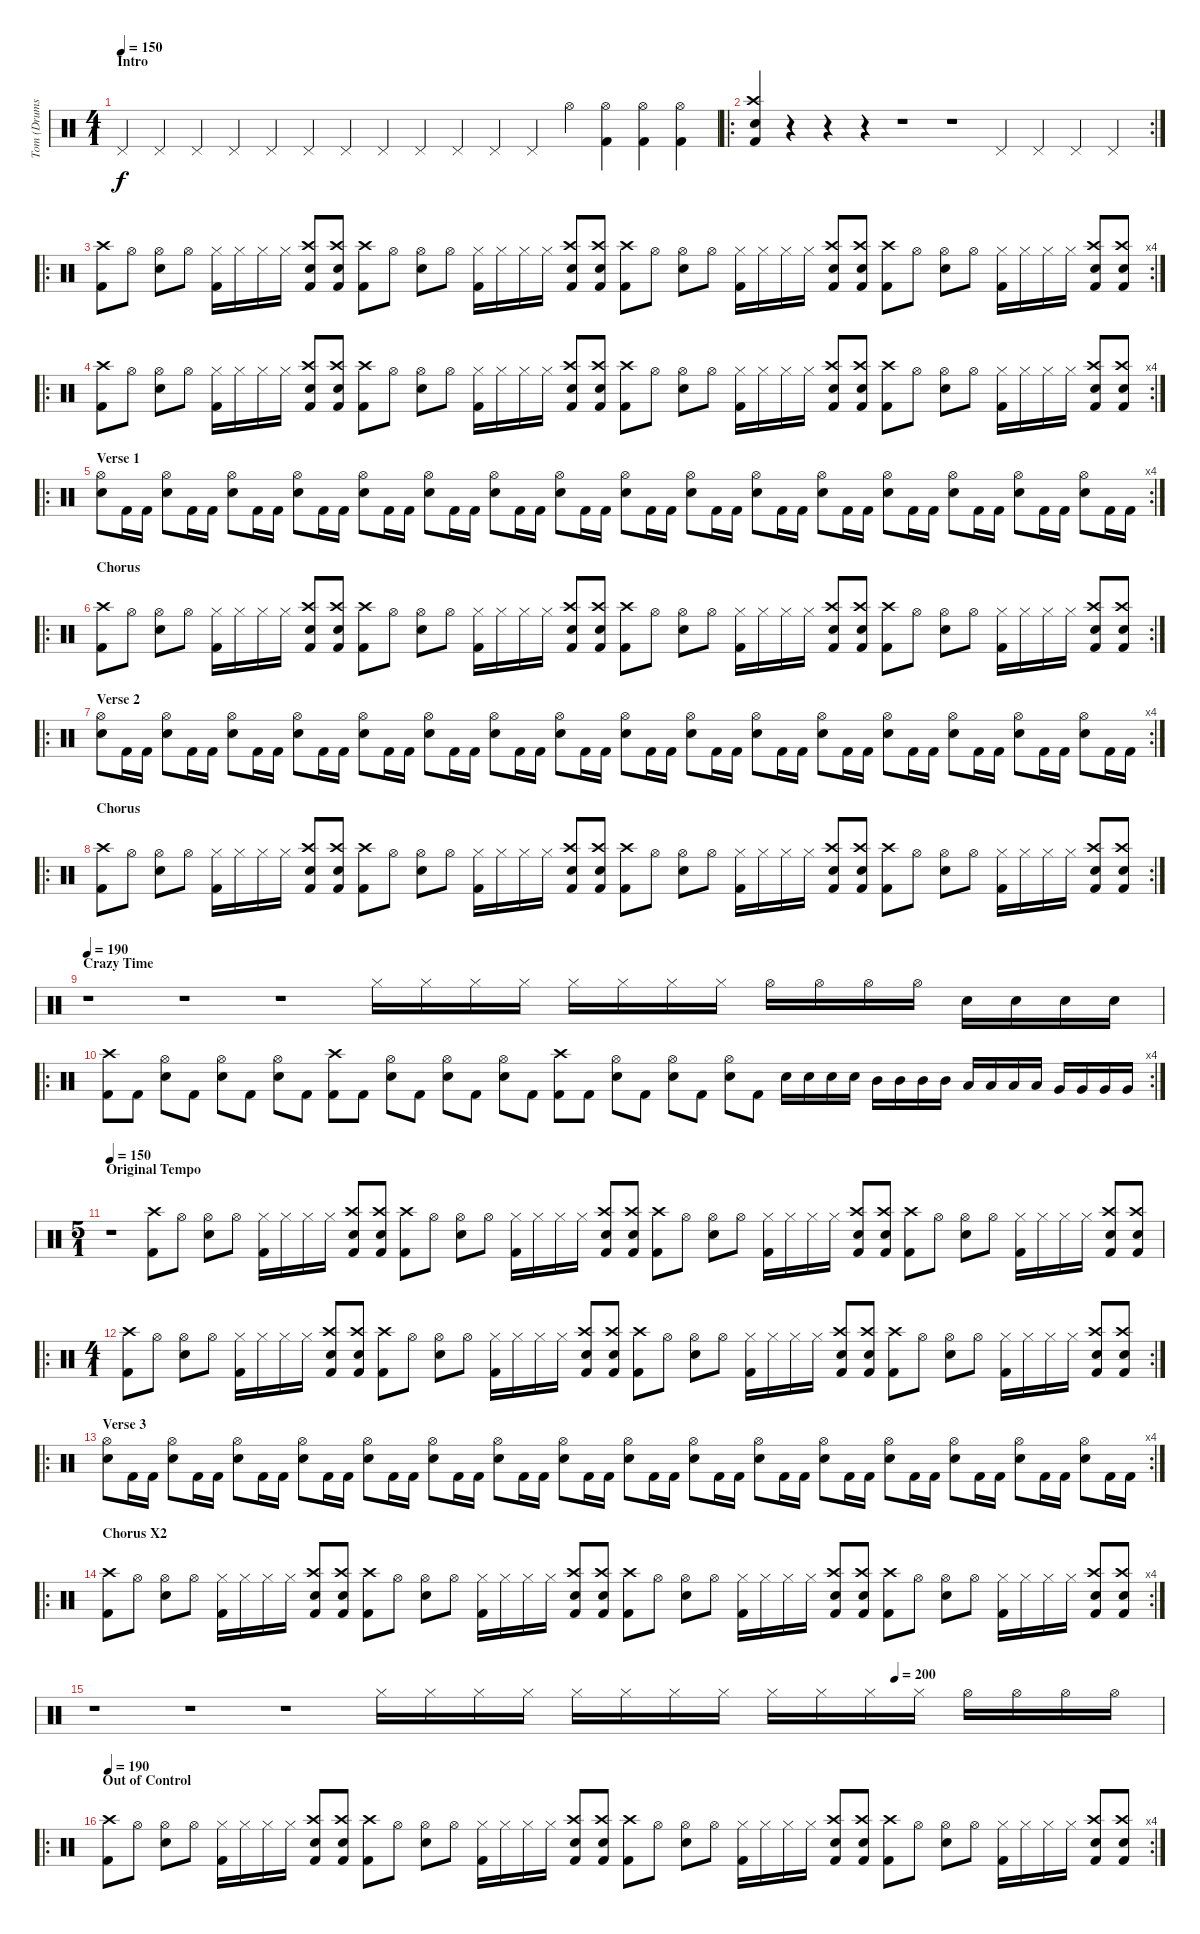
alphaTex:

\track ("Tom (Drums)" "Tom (Drums") {instrument percussion}
\staff {score}
\articulation defaults
\ts (4 1)
\section ("" "Intro")
\tempo 150
\clef neutral
\ks c "Pedal Hi-Hat (hit)".4{dy f} "Pedal Hi-Hat (hit)".4 "Pedal Hi-Hat (hit)".4 "Pedal Hi-Hat (hit)".4 "Pedal Hi-Hat (hit)".4 "Pedal Hi-Hat (hit)".4 "Pedal Hi-Hat (hit)".4 "Pedal Hi-Hat (hit)".4 "Pedal Hi-Hat (hit)".4 "Pedal Hi-Hat (hit)".4 "Pedal Hi-Hat (hit)".4 "Pedal Hi-Hat (hit)".4 "Hi-Hat (open)".4
("Hi-Hat (open)" "Kick (hit) 2").4 ("Hi-Hat (open)" "Kick (hit) 2").4 ("Hi-Hat (open)" "Kick (hit) 2").4 |
\ro
\rc 2
("Crash high (hit)" "Electric Snare (hit)" "Kick (hit) 2").4 r.4 r.4 r.4 r.1 r.1 "Pedal Hi-Hat (hit)".4 "Pedal Hi-Hat (hit)".4 "Pedal Hi-Hat (hit)".4 "Pedal Hi-Hat (hit)".4 |
\ro
\rc 4
("Crash high (hit)" "Kick (hit) 2").8 "Hi-Hat (open)".8 ("Hi-Hat (open)" "Electric Snare (hit)").8 "Hi-Hat (open)".8 ("Hi-Hat (closed)" "Kick (hit) 2").16 "Hi-Hat (closed)".16 "Hi-Hat (closed)".16 "Hi-Hat (closed)".16 ("Crash high (hit)" "Electric Snare (hit)" "Kick (hit) 2").8 ("Crash high (hit)" "Electric Snare (hit)" "Kick (hit) 2").8 ("Crash high (hit)" "Kick (hit) 2").8 "Hi-Hat (open)".8 ("Hi-Hat (open)" "Electric Snare (hit)").8 "Hi-Hat (open)".8 ("Hi-Hat (closed)" "Kick (hit) 2").16 "Hi-Hat (closed)".16 "Hi-Hat (closed)".16 "Hi-Hat (closed)".16 ("Crash high (hit)" "Electric Snare (hit)" "Kick (hit) 2").8 ("Crash high (hit)" "Electric Snare (hit)" "Kick (hit) 2").8 ("Crash high (hit)" "Kick (hit) 2").8 "Hi-Hat (open)".8 ("Hi-Hat (open)" "Electric Snare (hit)").8 "Hi-Hat (open)".8 ("Hi-Hat (closed)" "Kick (hit) 2").16 "Hi-Hat (closed)".16 "Hi-Hat (closed)".16 "Hi-Hat (closed)".16 ("Crash high (hit)" "Kick (hit) 2" "Electric Snare (hit)").8 ("Crash high (hit)" "Kick (hit) 2" "Electric Snare (hit)").8 ("Crash high (hit)" "Kick (hit) 2").8 "Hi-Hat (open)".8 ("Hi-Hat (open)" "Electric Snare (hit)").8 "Hi-Hat (open)".8 ("Hi-Hat (closed)" "Kick (hit) 2").16 "Hi-Hat (closed)".16 "Hi-Hat (closed)".16 "Hi-Hat (closed)".16 ("Crash high (hit)" "Electric Snare (hit)" "Kick (hit) 2").8 ("Crash high (hit)" "Electric Snare (hit)" "Kick (hit) 2").8 |
\ro
\rc 4
("Crash high (hit)" "Kick (hit) 2").8 "Hi-Hat (open)".8 ("Hi-Hat (open)" "Electric Snare (hit)").8 "Hi-Hat (open)".8 ("Hi-Hat (closed)" "Kick (hit) 2").16 "Hi-Hat (closed)".16 "Hi-Hat (closed)".16 "Hi-Hat (closed)".16 ("Crash high (hit)" "Electric Snare (hit)" "Kick (hit) 2").8 ("Crash high (hit)" "Electric Snare (hit)" "Kick (hit) 2").8 ("Crash high (hit)" "Kick (hit) 2").8 "Hi-Hat (open)".8 ("Hi-Hat (open)" "Electric Snare (hit)").8 "Hi-Hat (open)".8 ("Hi-Hat (closed)" "Kick (hit) 2").16 "Hi-Hat (closed)".16 "Hi-Hat (closed)".16 "Hi-Hat (closed)".16 ("Crash high (hit)" "Electric Snare (hit)" "Kick (hit) 2").8 ("Crash high (hit)" "Electric Snare (hit)" "Kick (hit) 2").8 ("Crash high (hit)" "Kick (hit) 2").8 "Hi-Hat (open)".8 ("Hi-Hat (open)" "Electric Snare (hit)").8 "Hi-Hat (open)".8 ("Hi-Hat (closed)" "Kick (hit) 2").16 "Hi-Hat (closed)".16 "Hi-Hat (closed)".16 "Hi-Hat (closed)".16 ("Crash high (hit)" "Kick (hit) 2" "Electric Snare (hit)").8 ("Crash high (hit)" "Kick (hit) 2" "Electric Snare (hit)").8 ("Crash high (hit)" "Kick (hit) 2").8 "Hi-Hat (open)".8 ("Hi-Hat (open)" "Electric Snare (hit)").8 "Hi-Hat (open)".8 ("Hi-Hat (closed)" "Kick (hit) 2").16 "Hi-Hat (closed)".16 "Hi-Hat (closed)".16 "Hi-Hat (closed)".16 ("Crash high (hit)" "Electric Snare (hit)" "Kick (hit) 2").8 ("Crash high (hit)" "Electric Snare (hit)" "Kick (hit) 2").8 |
\ro
\rc 4
\section ("" "Verse 1")
("Hi-Hat (open)" "Electric Snare (hit)").8 "Kick (hit) 2".16 "Kick (hit) 2".16 ("Hi-Hat (open)" "Electric Snare (hit)").8 "Kick (hit) 2".16 "Kick (hit) 2".16 ("Hi-Hat (open)" "Electric Snare (hit)").8 "Kick (hit) 2".16 "Kick (hit) 2".16 ("Hi-Hat (open)" "Electric Snare (hit)").8 "Kick (hit) 2".16 "Kick (hit) 2".16 ("Hi-Hat (open)" "Electric Snare (hit)").8 "Kick (hit) 2".16 "Kick (hit) 2".16 ("Hi-Hat (open)" "Electric Snare (hit)").8 "Kick (hit) 2".16 "Kick (hit) 2".16 ("Hi-Hat (open)" "Electric Snare (hit)").8 "Kick (hit) 2".16 "Kick (hit) 2".16 ("Hi-Hat (open)" "Electric Snare (hit)").8 "Kick (hit) 2".16 "Kick (hit) 2".16 ("Hi-Hat (open)" "Electric Snare (hit)").8 "Kick (hit) 2".16 "Kick (hit) 2".16 ("Hi-Hat (open)" "Electric Snare (hit)").8 "Kick (hit) 2".16 "Kick (hit) 2".16 ("Hi-Hat (open)" "Electric Snare (hit)").8 "Kick (hit) 2".16 "Kick (hit) 2".16 ("Hi-Hat (open)" "Electric Snare (hit)").8 "Kick (hit) 2".16 "Kick (hit) 2".16 ("Hi-Hat (open)" "Electric Snare (hit)").8 "Kick (hit) 2".16 "Kick (hit) 2".16 ("Hi-Hat (open)" "Electric Snare (hit)").8 "Kick (hit) 2".16 "Kick (hit) 2".16 ("Hi-Hat (open)" "Electric Snare (hit)").8 "Kick (hit) 2".16 "Kick (hit) 2".16 ("Hi-Hat (open)" "Electric Snare (hit)").8 "Kick (hit) 2".16 "Kick (hit) 2".16 |
\ro
\rc 2
\section ("" "Chorus")
("Crash high (hit)" "Kick (hit) 2").8 "Hi-Hat (open)".8 ("Hi-Hat (open)" "Electric Snare (hit)").8 "Hi-Hat (open)".8 ("Hi-Hat (closed)" "Kick (hit) 2").16 "Hi-Hat (closed)".16 "Hi-Hat (closed)".16 "Hi-Hat (closed)".16 ("Crash high (hit)" "Electric Snare (hit)" "Kick (hit) 2").8 ("Crash high (hit)" "Electric Snare (hit)" "Kick (hit) 2").8 ("Crash high (hit)" "Kick (hit) 2").8 "Hi-Hat (open)".8 ("Hi-Hat (open)" "Electric Snare (hit)").8 "Hi-Hat (open)".8 ("Hi-Hat (closed)" "Kick (hit) 2").16 "Hi-Hat (closed)".16 "Hi-Hat (closed)".16 "Hi-Hat (closed)".16 ("Crash high (hit)" "Electric Snare (hit)" "Kick (hit) 2").8 ("Crash high (hit)" "Electric Snare (hit)" "Kick (hit) 2").8 ("Crash high (hit)" "Kick (hit) 2").8 "Hi-Hat (open)".8 ("Hi-Hat (open)" "Electric Snare (hit)").8 "Hi-Hat (open)".8 ("Hi-Hat (closed)" "Kick (hit) 2").16 "Hi-Hat (closed)".16 "Hi-Hat (closed)".16 "Hi-Hat (closed)".16 ("Crash high (hit)" "Kick (hit) 2" "Electric Snare (hit)").8 ("Crash high (hit)" "Kick (hit) 2" "Electric Snare (hit)").8 ("Crash high (hit)" "Kick (hit) 2").8 "Hi-Hat (open)".8 ("Hi-Hat (open)" "Electric Snare (hit)").8 "Hi-Hat (open)".8 ("Hi-Hat (closed)" "Kick (hit) 2").16 "Hi-Hat (closed)".16 "Hi-Hat (closed)".16 "Hi-Hat (closed)".16 ("Crash high (hit)" "Electric Snare (hit)" "Kick (hit) 2").8 ("Crash high (hit)" "Electric Snare (hit)" "Kick (hit) 2").8 |
\ro
\rc 4
\section ("" "Verse 2")
("Hi-Hat (open)" "Electric Snare (hit)").8 "Kick (hit) 2".16 "Kick (hit) 2".16 ("Hi-Hat (open)" "Electric Snare (hit)").8 "Kick (hit) 2".16 "Kick (hit) 2".16 ("Hi-Hat (open)" "Electric Snare (hit)").8 "Kick (hit) 2".16 "Kick (hit) 2".16 ("Hi-Hat (open)" "Electric Snare (hit)").8 "Kick (hit) 2".16 "Kick (hit) 2".16 ("Hi-Hat (open)" "Electric Snare (hit)").8 "Kick (hit) 2".16 "Kick (hit) 2".16 ("Hi-Hat (open)" "Electric Snare (hit)").8 "Kick (hit) 2".16 "Kick (hit) 2".16 ("Hi-Hat (open)" "Electric Snare (hit)").8 "Kick (hit) 2".16 "Kick (hit) 2".16 ("Hi-Hat (open)" "Electric Snare (hit)").8 "Kick (hit) 2".16 "Kick (hit) 2".16 ("Hi-Hat (open)" "Electric Snare (hit)").8 "Kick (hit) 2".16 "Kick (hit) 2".16 ("Hi-Hat (open)" "Electric Snare (hit)").8 "Kick (hit) 2".16 "Kick (hit) 2".16 ("Hi-Hat (open)" "Electric Snare (hit)").8 "Kick (hit) 2".16 "Kick (hit) 2".16 ("Hi-Hat (open)" "Electric Snare (hit)").8 "Kick (hit) 2".16 "Kick (hit) 2".16 ("Hi-Hat (open)" "Electric Snare (hit)").8 "Kick (hit) 2".16 "Kick (hit) 2".16 ("Hi-Hat (open)" "Electric Snare (hit)").8 "Kick (hit) 2".16 "Kick (hit) 2".16 ("Hi-Hat (open)" "Electric Snare (hit)").8 "Kick (hit) 2".16 "Kick (hit) 2".16 ("Hi-Hat (open)" "Electric Snare (hit)").8 "Kick (hit) 2".16 "Kick (hit) 2".16 |
\ro
\rc 2
\section ("" "Chorus")
("Crash high (hit)" "Kick (hit) 2").8 "Hi-Hat (open)".8 ("Hi-Hat (open)" "Electric Snare (hit)").8 "Hi-Hat (open)".8 ("Hi-Hat (closed)" "Kick (hit) 2").16 "Hi-Hat (closed)".16 "Hi-Hat (closed)".16 "Hi-Hat (closed)".16 ("Crash high (hit)" "Electric Snare (hit)" "Kick (hit) 2").8 ("Crash high (hit)" "Electric Snare (hit)" "Kick (hit) 2").8 ("Crash high (hit)" "Kick (hit) 2").8 "Hi-Hat (open)".8 ("Hi-Hat (open)" "Electric Snare (hit)").8 "Hi-Hat (open)".8 ("Hi-Hat (closed)" "Kick (hit) 2").16 "Hi-Hat (closed)".16 "Hi-Hat (closed)".16 "Hi-Hat (closed)".16 ("Crash high (hit)" "Electric Snare (hit)" "Kick (hit) 2").8 ("Crash high (hit)" "Electric Snare (hit)" "Kick (hit) 2").8 ("Crash high (hit)" "Kick (hit) 2").8 "Hi-Hat (open)".8 ("Hi-Hat (open)" "Electric Snare (hit)").8 "Hi-Hat (open)".8 ("Hi-Hat (closed)" "Kick (hit) 2").16 "Hi-Hat (closed)".16 "Hi-Hat (closed)".16 "Hi-Hat (closed)".16 ("Crash high (hit)" "Kick (hit) 2" "Electric Snare (hit)").8 ("Crash high (hit)" "Kick (hit) 2" "Electric Snare (hit)").8 ("Crash high (hit)" "Kick (hit) 2").8 "Hi-Hat (open)".8 ("Hi-Hat (open)" "Electric Snare (hit)").8 "Hi-Hat (open)".8 ("Hi-Hat (closed)" "Kick (hit) 2").16 "Hi-Hat (closed)".16 "Hi-Hat (closed)".16 "Hi-Hat (closed)".16 ("Crash high (hit)" "Electric Snare (hit)" "Kick (hit) 2").8 ("Crash high (hit)" "Electric Snare (hit)" "Kick (hit) 2").8 |
\section ("" "Crazy Time")
\tempo 190
r.1 r.1 r.1 "Hi-Hat (closed)".16 "Hi-Hat (closed)".16 "Hi-Hat (closed)".16 "Hi-Hat (closed)".16 "Hi-Hat (closed)".16 "Hi-Hat (closed)".16 "Hi-Hat (closed)".16 "Hi-Hat (closed)".16 "Hi-Hat (open)".16 "Hi-Hat (open)".16 "Hi-Hat (open)".16 "Hi-Hat (open)".16 "Electric Snare (hit)".16 "Electric Snare (hit)".16 "Electric Snare (hit)".16 "Electric Snare (hit)".16 |
\ro
\rc 4
("Crash high (hit)" "Kick (hit) 2").8 "Kick (hit) 2".8 ("Hi-Hat (open)" "Electric Snare (hit)").8 "Kick (hit) 2".8 ("Hi-Hat (open)" "Electric Snare (hit)").8 "Kick (hit) 2".8 ("Hi-Hat (open)" "Electric Snare (hit)").8 "Kick (hit) 2".8 ("Crash high (hit)" "Kick (hit) 2").8 "Kick (hit) 2".8 ("Hi-Hat (open)" "Electric Snare (hit)").8 "Kick (hit) 2".8 ("Hi-Hat (open)" "Electric Snare (hit)").8 "Kick (hit) 2".8 ("Hi-Hat (open)" "Electric Snare (hit)").8 "Kick (hit) 2".8 ("Crash high (hit)" "Kick (hit) 2").8 "Kick (hit) 2".8 ("Hi-Hat (open)" "Electric Snare (hit)").8 "Kick (hit) 2".8 ("Hi-Hat (open)" "Electric Snare (hit)").8 "Kick (hit) 2".8 ("Hi-Hat (open)" "Electric Snare (hit)").8 "Kick (hit) 2".8 "Electric Snare (hit)".16 "Electric Snare (hit)".16 "Electric Snare (hit)".16 "Electric Snare (hit)".16 "Mid Tom (hit)".16 "Mid Tom (hit)".16 "Mid Tom (hit)".16 "Mid Tom (hit)".16 "Low Tom (hit)".16 "Low Tom (hit)".16 "Low Tom (hit)".16 "Low Tom (hit)".16 "Very Low Tom (hit)".16 "Very Low Tom (hit)".16 "Very Low Tom (hit)".16 "Very Low Tom (hit)".16 |
\ts (5 1)
\section ("" "Original Tempo")
\tempo 150
r.1 ("Crash high (hit)" "Kick (hit) 2").8 "Hi-Hat (open)".8 ("Hi-Hat (open)" "Electric Snare (hit)").8 "Hi-Hat (open)".8 ("Hi-Hat (closed)" "Kick (hit) 2").16 "Hi-Hat (closed)".16 "Hi-Hat (closed)".16 "Hi-Hat (closed)".16 ("Crash high (hit)" "Kick (hit) 2" "Electric Snare (hit)").8 ("Crash high (hit)" "Kick (hit) 2" "Electric Snare (hit)").8 ("Crash high (hit)" "Kick (hit) 2").8 "Hi-Hat (open)".8 ("Hi-Hat (open)" "Electric Snare (hit)").8 "Hi-Hat (open)".8 ("Hi-Hat (closed)" "Kick (hit) 2").16 "Hi-Hat (closed)".16 "Hi-Hat (closed)".16 "Hi-Hat (closed)".16 ("Crash high (hit)" "Kick (hit) 2" "Electric Snare (hit)").8 ("Crash high (hit)" "Kick (hit) 2" "Electric Snare (hit)").8 ("Crash high (hit)" "Kick (hit) 2").8 "Hi-Hat (open)".8 ("Hi-Hat (open)" "Electric Snare (hit)").8 "Hi-Hat (open)".8 ("Hi-Hat (closed)" "Kick (hit) 2").16 "Hi-Hat (closed)".16 "Hi-Hat (closed)".16 "Hi-Hat (closed)".16 ("Crash high (hit)" "Kick (hit) 2" "Electric Snare (hit)").8 ("Crash high (hit)" "Kick (hit) 2" "Electric Snare (hit)").8 ("Crash high (hit)" "Kick (hit) 2").8 "Hi-Hat (open)".8 ("Hi-Hat (open)" "Electric Snare (hit)").8 "Hi-Hat (open)".8 ("Hi-Hat (closed)" "Kick (hit) 2").16 "Hi-Hat (closed)".16 "Hi-Hat (closed)".16 "Hi-Hat (closed)".16 ("Crash high (hit)" "Kick (hit) 2" "Electric Snare (hit)").8 ("Crash high (hit)" "Kick (hit) 2" "Electric Snare (hit)").8 |
\ro
\rc 2
\ts (4 1)
("Crash high (hit)" "Kick (hit) 2").8 "Hi-Hat (open)".8 ("Hi-Hat (open)" "Electric Snare (hit)").8 "Hi-Hat (open)".8 ("Hi-Hat (closed)" "Kick (hit) 2").16 "Hi-Hat (closed)".16 "Hi-Hat (closed)".16 "Hi-Hat (closed)".16 ("Crash high (hit)" "Electric Snare (hit)" "Kick (hit) 2").8 ("Crash high (hit)" "Electric Snare (hit)" "Kick (hit) 2").8 ("Crash high (hit)" "Kick (hit) 2").8 "Hi-Hat (open)".8 ("Hi-Hat (open)" "Electric Snare (hit)").8 "Hi-Hat (open)".8 ("Hi-Hat (closed)" "Kick (hit) 2").16 "Hi-Hat (closed)".16 "Hi-Hat (closed)".16 "Hi-Hat (closed)".16 ("Crash high (hit)" "Electric Snare (hit)" "Kick (hit) 2").8 ("Crash high (hit)" "Electric Snare (hit)" "Kick (hit) 2").8 ("Crash high (hit)" "Kick (hit) 2").8 "Hi-Hat (open)".8 ("Hi-Hat (open)" "Electric Snare (hit)").8 "Hi-Hat (open)".8 ("Hi-Hat (closed)" "Kick (hit) 2").16 "Hi-Hat (closed)".16 "Hi-Hat (closed)".16 "Hi-Hat (closed)".16 ("Crash high (hit)" "Kick (hit) 2" "Electric Snare (hit)").8 ("Crash high (hit)" "Kick (hit) 2" "Electric Snare (hit)").8 ("Crash high (hit)" "Kick (hit) 2").8 "Hi-Hat (open)".8 ("Hi-Hat (open)" "Electric Snare (hit)").8 "Hi-Hat (open)".8 ("Hi-Hat (closed)" "Kick (hit) 2").16 "Hi-Hat (closed)".16 "Hi-Hat (closed)".16 "Hi-Hat (closed)".16 ("Crash high (hit)" "Electric Snare (hit)" "Kick (hit) 2").8 ("Crash high (hit)" "Electric Snare (hit)" "Kick (hit) 2").8 |
\ro
\rc 4
\section ("" "Verse 3")
("Hi-Hat (open)" "Electric Snare (hit)").8 "Kick (hit) 2".16 "Kick (hit) 2".16 ("Hi-Hat (open)" "Electric Snare (hit)").8 "Kick (hit) 2".16 "Kick (hit) 2".16 ("Hi-Hat (open)" "Electric Snare (hit)").8 "Kick (hit) 2".16 "Kick (hit) 2".16 ("Hi-Hat (open)" "Electric Snare (hit)").8 "Kick (hit) 2".16 "Kick (hit) 2".16 ("Hi-Hat (open)" "Electric Snare (hit)").8 "Kick (hit) 2".16 "Kick (hit) 2".16 ("Hi-Hat (open)" "Electric Snare (hit)").8 "Kick (hit) 2".16 "Kick (hit) 2".16 ("Hi-Hat (open)" "Electric Snare (hit)").8 "Kick (hit) 2".16 "Kick (hit) 2".16 ("Hi-Hat (open)" "Electric Snare (hit)").8 "Kick (hit) 2".16 "Kick (hit) 2".16 ("Hi-Hat (open)" "Electric Snare (hit)").8 "Kick (hit) 2".16 "Kick (hit) 2".16 ("Hi-Hat (open)" "Electric Snare (hit)").8 "Kick (hit) 2".16 "Kick (hit) 2".16 ("Hi-Hat (open)" "Electric Snare (hit)").8 "Kick (hit) 2".16 "Kick (hit) 2".16 ("Hi-Hat (open)" "Electric Snare (hit)").8 "Kick (hit) 2".16 "Kick (hit) 2".16 ("Hi-Hat (open)" "Electric Snare (hit)").8 "Kick (hit) 2".16 "Kick (hit) 2".16 ("Hi-Hat (open)" "Electric Snare (hit)").8 "Kick (hit) 2".16 "Kick (hit) 2".16 ("Hi-Hat (open)" "Electric Snare (hit)").8 "Kick (hit) 2".16 "Kick (hit) 2".16 ("Hi-Hat (open)" "Electric Snare (hit)").8 "Kick (hit) 2".16 "Kick (hit) 2".16 |
\ro
\rc 4
\section ("" "Chorus X2")
("Crash high (hit)" "Kick (hit) 2").8 "Hi-Hat (open)".8 ("Hi-Hat (open)" "Electric Snare (hit)").8 "Hi-Hat (open)".8 ("Hi-Hat (closed)" "Kick (hit) 2").16 "Hi-Hat (closed)".16 "Hi-Hat (closed)".16 "Hi-Hat (closed)".16 ("Crash high (hit)" "Electric Snare (hit)" "Kick (hit) 2").8 ("Crash high (hit)" "Electric Snare (hit)" "Kick (hit) 2").8 ("Crash high (hit)" "Kick (hit) 2").8 "Hi-Hat (open)".8 ("Hi-Hat (open)" "Electric Snare (hit)").8 "Hi-Hat (open)".8 ("Hi-Hat (closed)" "Kick (hit) 2").16 "Hi-Hat (closed)".16 "Hi-Hat (closed)".16 "Hi-Hat (closed)".16 ("Crash high (hit)" "Electric Snare (hit)" "Kick (hit) 2").8 ("Crash high (hit)" "Electric Snare (hit)" "Kick (hit) 2").8 ("Crash high (hit)" "Kick (hit) 2").8 "Hi-Hat (open)".8 ("Hi-Hat (open)" "Electric Snare (hit)").8 "Hi-Hat (open)".8 ("Hi-Hat (closed)" "Kick (hit) 2").16 "Hi-Hat (closed)".16 "Hi-Hat (closed)".16 "Hi-Hat (closed)".16 ("Crash high (hit)" "Kick (hit) 2" "Electric Snare (hit)").8 ("Crash high (hit)" "Kick (hit) 2" "Electric Snare (hit)").8 ("Crash high (hit)" "Kick (hit) 2").8 "Hi-Hat (open)".8 ("Hi-Hat (open)" "Electric Snare (hit)").8 "Hi-Hat (open)".8 ("Hi-Hat (closed)" "Kick (hit) 2").16 "Hi-Hat (closed)".16 "Hi-Hat (closed)".16 "Hi-Hat (closed)".16 ("Crash high (hit)" "Electric Snare (hit)" "Kick (hit) 2").8 ("Crash high (hit)" "Electric Snare (hit)" "Kick (hit) 2").8 |
\tempo (200 0.75)
r.1 r.1 r.1 "Hi-Hat (closed)".16 "Hi-Hat (closed)".16 "Hi-Hat (closed)".16 "Hi-Hat (closed)".16 "Hi-Hat (closed)".16 "Hi-Hat (closed)".16 "Hi-Hat (closed)".16 "Hi-Hat (closed)".16 "Hi-Hat (closed)".16 "Hi-Hat (closed)".16 "Hi-Hat (closed)".16 "Hi-Hat (closed)".16 "Hi-Hat (open)".16 "Hi-Hat (open)".16 "Hi-Hat (open)".16 "Hi-Hat (open)".16 |
\ro
\rc 4
\section ("" "Out of Control")
\tempo 190
("Crash high (hit)" "Kick (hit) 2").8 "Hi-Hat (open)".8 ("Hi-Hat (open)" "Electric Snare (hit)").8 "Hi-Hat (open)".8 ("Hi-Hat (closed)" "Kick (hit) 2").16 "Hi-Hat (closed)".16 "Hi-Hat (closed)".16 "Hi-Hat (closed)".16 ("Crash high (hit)" "Electric Snare (hit)" "Kick (hit) 2").8 ("Crash high (hit)" "Electric Snare (hit)" "Kick (hit) 2").8 ("Crash high (hit)" "Kick (hit) 2").8 "Hi-Hat (open)".8 ("Hi-Hat (open)" "Electric Snare (hit)").8 "Hi-Hat (open)".8 ("Hi-Hat (closed)" "Kick (hit) 2").16 "Hi-Hat (closed)".16 "Hi-Hat (closed)".16 "Hi-Hat (closed)".16 ("Crash high (hit)" "Electric Snare (hit)" "Kick (hit) 2").8 ("Crash high (hit)" "Electric Snare (hit)" "Kick (hit) 2").8 ("Crash high (hit)" "Kick (hit) 2").8 "Hi-Hat (open)".8 ("Hi-Hat (open)" "Electric Snare (hit)").8 "Hi-Hat (open)".8 ("Hi-Hat (closed)" "Kick (hit) 2").16 "Hi-Hat (closed)".16 "Hi-Hat (closed)".16 "Hi-Hat (closed)".16 ("Crash high (hit)" "Kick (hit) 2" "Electric Snare (hit)").8 ("Crash high (hit)" "Kick (hit) 2" "Electric Snare (hit)").8 ("Crash high (hit)" "Kick (hit) 2").8 "Hi-Hat (open)".8 ("Hi-Hat (open)" "Electric Snare (hit)").8 "Hi-Hat (open)".8 ("Hi-Hat (closed)" "Kick (hit) 2").16 "Hi-Hat (closed)".16 "Hi-Hat (closed)".16 "Hi-Hat (closed)".16 ("Crash high (hit)" "Electric Snare (hit)" "Kick (hit) 2").8 ("Crash high (hit)" "Electric Snare (hit)" "Kick (hit) 2").8
